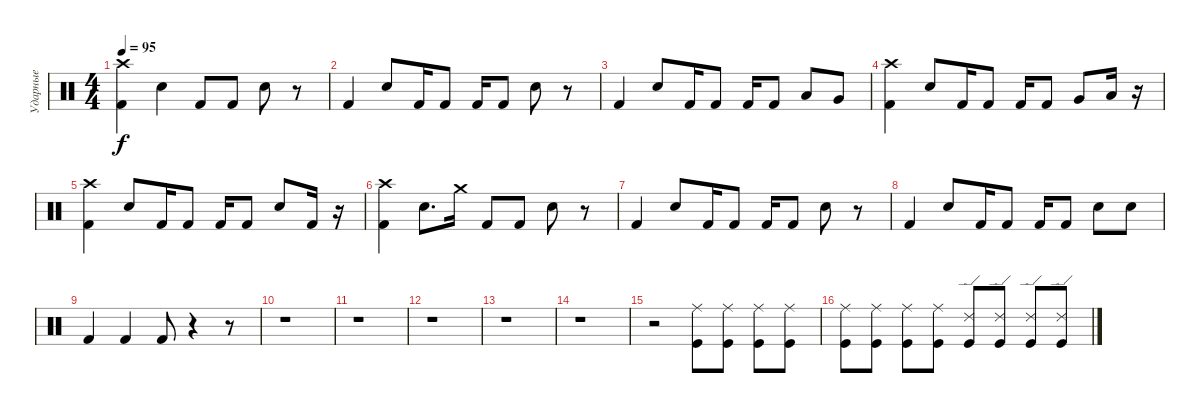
\track ("Ударные" "Ударные") {instrument percussion}
\staff {score}
\articulation defaults
\ts (4 4)
\tempo 95
\clef neutral
\ks c
("Crash high (hit)" "Kick (hit) 2").4{dy f} "Snare (hit) 2".4 "Kick (hit) 2".8 "Kick (hit) 2".8 "Snare (hit) 2".8 r.8 |
"Kick (hit) 2".4 "Snare (hit) 2".8 "Kick (hit) 2".16 "Kick (hit) 2".8 "Kick (hit) 2".16 "Kick (hit) 2".8 "Snare (hit) 2".8 r.8 |
"Kick (hit) 2".4 "Snare (hit) 2".8 "Kick (hit) 2".16 "Kick (hit) 2".8 "Kick (hit) 2".16 "Kick (hit) 2".8 "Low Floor Tom (hit)".8 "Very Low Tom (hit)".8 |
("Crash high (hit)" "Kick (hit) 2").4 "Snare (hit) 2".8 "Kick (hit) 2".16 "Kick (hit) 2".8 "Kick (hit) 2".16 "Kick (hit) 2".8 "Very Low Tom (hit)".8 "Low Floor Tom (hit)".16 r.16 |
("Crash high (hit)" "Kick (hit) 2").4 "Snare (hit) 2".8 "Kick (hit) 2".16 "Kick (hit) 2".8 "Kick (hit) 2".16 "Kick (hit) 2".8 "Snare (hit) 2".8 "Kick (hit) 2".16 r.16 |
("Crash high (hit)" "Kick (hit) 2").4 "Snare (hit) 2".8{d} "Crash medium (hit)".16 "Kick (hit) 2".8 "Kick (hit) 2".8 "Snare (hit) 2".8 r.8 |
"Kick (hit) 2".4 "Snare (hit) 2".8 "Kick (hit) 2".16 "Kick (hit) 2".8 "Kick (hit) 2".16 "Kick (hit) 2".8 "Snare (hit) 2".8 r.8 |
"Kick (hit) 2".4 "Snare (hit) 2".8 "Kick (hit) 2".16 "Kick (hit) 2".8 "Kick (hit) 2".16 "Kick (hit) 2".8 "Snare (hit) 2".8 "Snare (hit) 2".8 |
"Kick (hit) 2".4 "Kick (hit) 2".4 "Kick (hit) 2".8 r.4 r.8 |
r.1 |
r.1 |
r.1 |
r.1 |
r.1 |
r.2 ("Ride (middle)" "Kick (hit)").8 ("Ride (middle)" "Kick (hit)").8 ("Ride (middle)" "Kick (hit)").8 ("Ride (middle)" "Kick (hit)").8 |
("Ride (middle)" "Kick (hit)").8 ("Ride (middle)" "Kick (hit)").8 ("Ride (middle)" "Kick (hit)").8 ("Ride (middle)" "Kick (hit)").8 ("Ride (edge) 2" "Kick (hit)").8 ("Ride (edge) 2" "Kick (hit)").8 ("Ride (edge) 2" "Kick (hit)").8 ("Ride (edge) 2" "Kick (hit)").8
